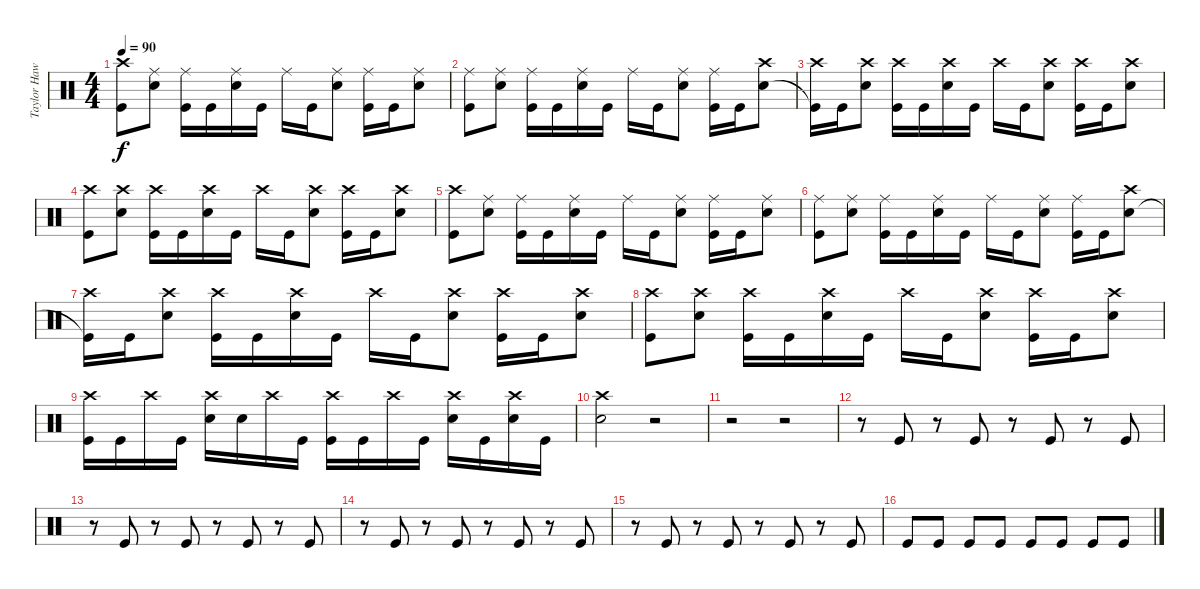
\track ("Taylor Hawkins - Drums" "Taylor Haw") {instrument percussion}
\staff {score}
\articulation defaults
\ts (4 4)
\tempo 90
\clef neutral
\ks c
("Crash high (hit)" "Kick (hit)").8{dy f} ("Ride (middle)" "Electric Snare (hit)").8 ("Ride (middle)" "Kick (hit)").16 "Kick (hit)".16 ("Ride (middle)" "Electric Snare (hit)").16 "Kick (hit)".16 "Ride (middle)".16 "Kick (hit)".16 ("Ride (middle)" "Electric Snare (hit)").8 ("Ride (middle)" "Kick (hit)").16 "Kick (hit)".16 ("Ride (middle)" "Snare (hit) 2").8 |
("Ride (middle)" "Kick (hit)").8 ("Ride (middle)" "Electric Snare (hit)").8 ("Ride (middle)" "Kick (hit)").16 "Kick (hit)".16 ("Ride (middle)" "Electric Snare (hit)").16 "Kick (hit)".16 "Ride (middle)".16 "Kick (hit)".16 ("Ride (middle)" "Electric Snare (hit)").8 ("Ride (middle)" "Kick (hit)").16 "Kick (hit)".16 ("Crash high (hit)" "Snare (hit) 2").8 |
("Crash high (hit)" "Kick (hit)"{t}).16 "Kick (hit)".16 ("Crash high (hit)" "Electric Snare (hit)").8 ("Crash high (hit)" "Kick (hit)").16 "Kick (hit)".16 ("Crash high (hit)" "Electric Snare (hit)").16 "Kick (hit)".16 "Crash high (hit)".16 "Kick (hit)".16 ("Crash high (hit)" "Electric Snare (hit)").8 ("Crash high (hit)" "Kick (hit)").16 "Kick (hit)".16 ("Crash high (hit)" "Snare (hit) 2").8 |
("Crash high (hit)" "Kick (hit)").8 ("Crash high (hit)" "Electric Snare (hit)").8 ("Crash high (hit)" "Kick (hit)").16 "Kick (hit)".16 ("Crash high (hit)" "Electric Snare (hit)").16 "Kick (hit)".16 "Crash high (hit)".16 "Kick (hit)".16 ("Crash high (hit)" "Electric Snare (hit)").8 ("Crash high (hit)" "Kick (hit)").16 "Kick (hit)".16 ("Crash high (hit)" "Electric Snare (hit)").8 |
("Crash high (hit)" "Kick (hit)").8 ("Ride (middle)" "Electric Snare (hit)").8 ("Ride (middle)" "Kick (hit)").16 "Kick (hit)".16 ("Ride (middle)" "Electric Snare (hit)").16 "Kick (hit)".16 "Ride (middle)".16 "Kick (hit)".16 ("Ride (middle)" "Electric Snare (hit)").8 ("Ride (middle)" "Kick (hit)").16 "Kick (hit)".16 ("Ride (middle)" "Snare (hit) 2").8 |
("Ride (middle)" "Kick (hit)").8 ("Ride (middle)" "Electric Snare (hit)").8 ("Ride (middle)" "Kick (hit)").16 "Kick (hit)".16 ("Ride (middle)" "Electric Snare (hit)").16 "Kick (hit)".16 "Ride (middle)".16 "Kick (hit)".16 ("Ride (middle)" "Electric Snare (hit)").8 ("Ride (middle)" "Kick (hit)").16 "Kick (hit)".16 ("Crash high (hit)" "Snare (hit) 2").8 |
("Crash high (hit)" "Kick (hit)"{t}).16 "Kick (hit)".16 ("Crash high (hit)" "Electric Snare (hit)").8 ("Crash high (hit)" "Kick (hit)").16 "Kick (hit)".16 ("Crash high (hit)" "Electric Snare (hit)").16 "Kick (hit)".16 "Crash high (hit)".16 "Kick (hit)".16 ("Crash high (hit)" "Electric Snare (hit)").8 ("Crash high (hit)" "Kick (hit)").16 "Kick (hit)".16 ("Crash high (hit)" "Snare (hit) 2").8 |
("Crash high (hit)" "Kick (hit)").8 ("Crash high (hit)" "Electric Snare (hit)").8 ("Crash high (hit)" "Kick (hit)").16 "Kick (hit)".16 ("Crash high (hit)" "Electric Snare (hit)").16 "Kick (hit)".16 "Crash high (hit)".16 "Kick (hit)".16 ("Crash high (hit)" "Electric Snare (hit)").8 ("Crash high (hit)" "Kick (hit)").16 "Kick (hit)".16 ("Crash high (hit)" "Electric Snare (hit)").8 |
("Crash high (hit)" "Kick (hit)").16 "Kick (hit)".16 "Crash high (hit)".16 "Kick (hit)".16 ("Crash high (hit)" "Electric Snare (hit)").16 "Electric Snare (hit)".16 "Crash high (hit)".16 "Kick (hit)".16 ("Crash high (hit)" "Kick (hit)").16 "Kick (hit)".16 "Crash high (hit)".16 "Kick (hit)".16 ("Crash high (hit)" "Electric Snare (hit)").16 "Kick (hit)".16 ("Crash high (hit)" "Electric Snare (hit)").16 "Kick (hit)".16 |
("Crash high (hit)" "Snare (hit) 2").2 r.2 |
r.2 r.2 |
r.8 "Kick (hit)".8 r.8 "Kick (hit)".8 r.8 "Kick (hit)".8 r.8 "Kick (hit)".8 |
r.8 "Kick (hit)".8 r.8 "Kick (hit)".8 r.8 "Kick (hit)".8 r.8 "Kick (hit)".8 |
r.8 "Kick (hit)".8 r.8 "Kick (hit)".8 r.8 "Kick (hit)".8 r.8 "Kick (hit)".8 |
r.8 "Kick (hit)".8 r.8 "Kick (hit)".8 r.8 "Kick (hit)".8 r.8 "Kick (hit)".8 |
"Kick (hit)".8 "Kick (hit)".8 "Kick (hit)".8 "Kick (hit)".8 "Kick (hit)".8 "Kick (hit)".8 "Kick (hit)".8 "Kick (hit)".8
